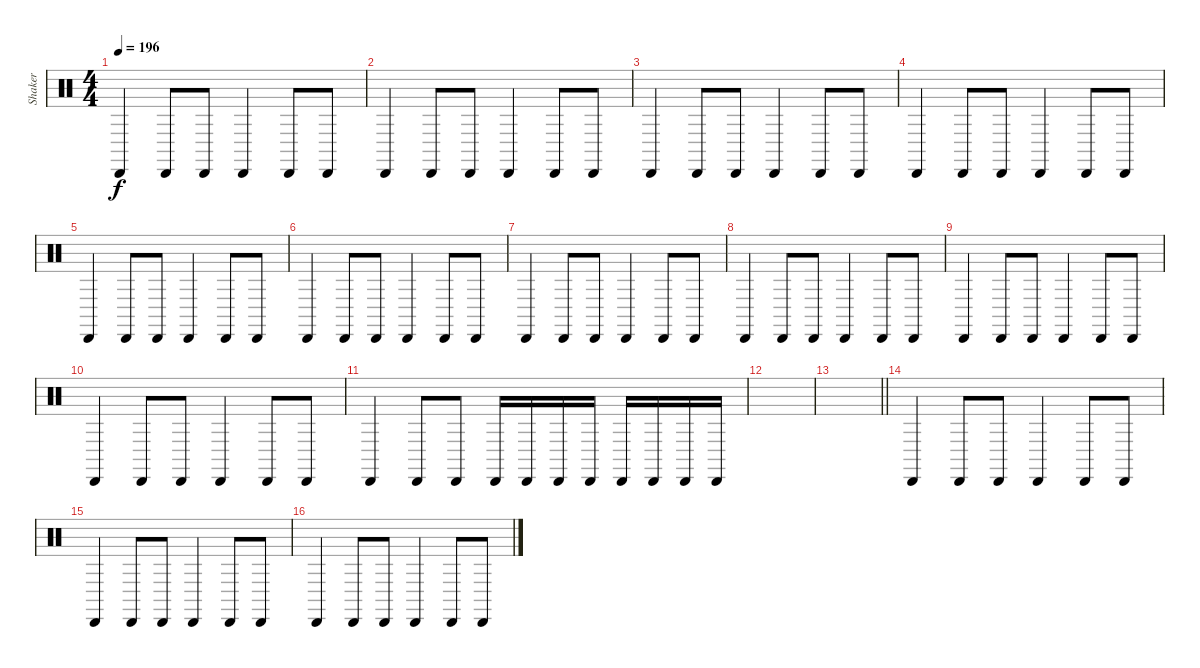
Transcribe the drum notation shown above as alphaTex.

\track ("Shaker" "Shaker") {instrument percussion bank 126}
\staff {score}
\articulation defaults
\ts (4 4)
\tempo 196
\clef neutral
\ks c "Cabasa (hit)".4{dy f} "Cabasa (hit)".8 "Cabasa (hit)".8 "Cabasa (hit)".4 "Cabasa (hit)".8 "Cabasa (hit)".8
|
"Cabasa (hit)".4 "Cabasa (hit)".8 "Cabasa (hit)".8 "Cabasa (hit)".4 "Cabasa (hit)".8 "Cabasa (hit)".8 |
"Cabasa (hit)".4 "Cabasa (hit)".8 "Cabasa (hit)".8 "Cabasa (hit)".4 "Cabasa (hit)".8 "Cabasa (hit)".8 |
"Cabasa (hit)".4 "Cabasa (hit)".8 "Cabasa (hit)".8 "Cabasa (hit)".4 "Cabasa (hit)".8 "Cabasa (hit)".8 |
"Cabasa (hit)".4 "Cabasa (hit)".8 "Cabasa (hit)".8 "Cabasa (hit)".4 "Cabasa (hit)".8 "Cabasa (hit)".8 |
"Cabasa (hit)".4 "Cabasa (hit)".8 "Cabasa (hit)".8 "Cabasa (hit)".4 "Cabasa (hit)".8 "Cabasa (hit)".8 |
"Cabasa (hit)".4 "Cabasa (hit)".8 "Cabasa (hit)".8 "Cabasa (hit)".4 "Cabasa (hit)".8 "Cabasa (hit)".8 |
"Cabasa (hit)".4 "Cabasa (hit)".8 "Cabasa (hit)".8 "Cabasa (hit)".4 "Cabasa (hit)".8 "Cabasa (hit)".8 |
"Cabasa (hit)".4 "Cabasa (hit)".8 "Cabasa (hit)".8 "Cabasa (hit)".4 "Cabasa (hit)".8 "Cabasa (hit)".8 |
"Cabasa (hit)".4 "Cabasa (hit)".8 "Cabasa (hit)".8 "Cabasa (hit)".4 "Cabasa (hit)".8 "Cabasa (hit)".8 |
"Cabasa (hit)".4 "Cabasa (hit)".8 "Cabasa (hit)".8 "Cabasa (hit)".16 "Cabasa (hit)".16 "Cabasa (hit)".16 "Cabasa (hit)".16 "Cabasa (hit)".16 "Cabasa (hit)".16 "Cabasa (hit)".16 "Cabasa (hit)".16 |
|
\barLineRight lightlight
|
\section ("" "")
"Cabasa (hit)".4 "Cabasa (hit)".8 "Cabasa (hit)".8 "Cabasa (hit)".4 "Cabasa (hit)".8 "Cabasa (hit)".8 |
"Cabasa (hit)".4 "Cabasa (hit)".8 "Cabasa (hit)".8 "Cabasa (hit)".4 "Cabasa (hit)".8 "Cabasa (hit)".8 |
"Cabasa (hit)".4 "Cabasa (hit)".8 "Cabasa (hit)".8 "Cabasa (hit)".4 "Cabasa (hit)".8 "Cabasa (hit)".8
